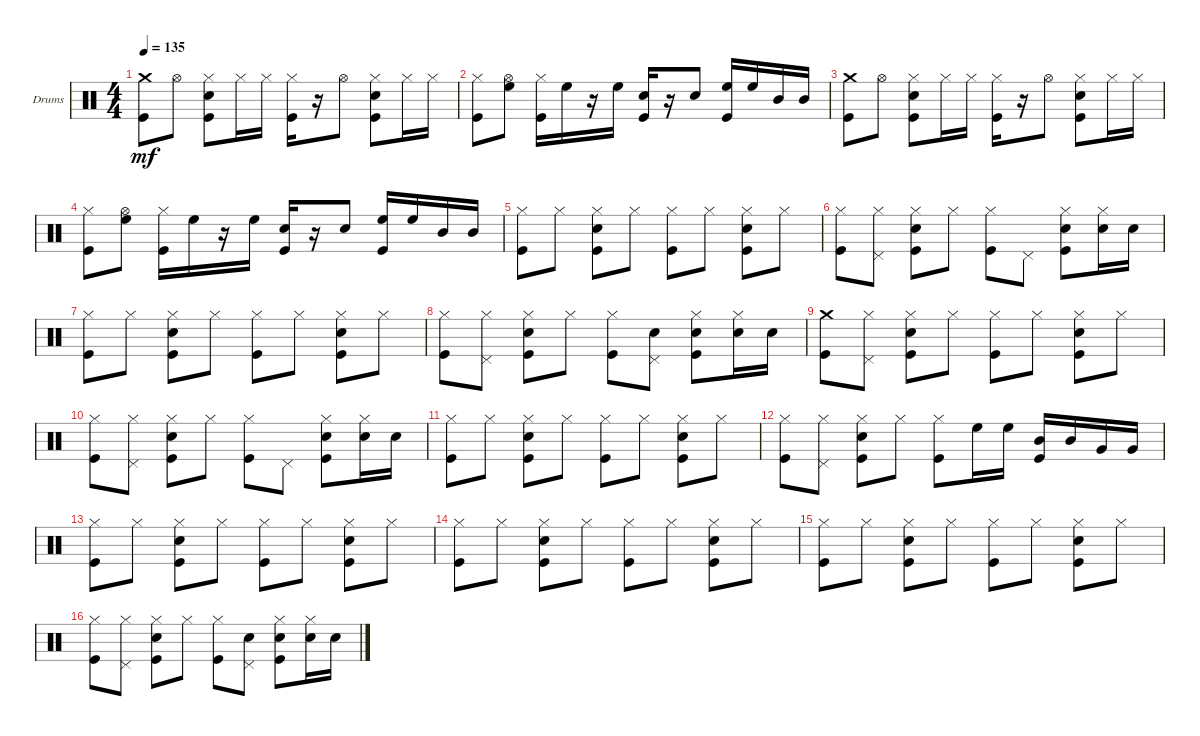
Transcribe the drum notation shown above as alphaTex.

\bracketExtendMode groupsimilarinstruments
\firstSystemTrackNameOrientation horizontal
\otherSystemsTrackNameOrientation horizontal
\track ("Drumkit" "Drums") {instrument percussion}
\staff {score}
\articulation defaults
\ts (4 4)
\tempo 135
\clef neutral
\ks c
("Crash medium (hit)" "Kick (hit)").8{dy mf} "Hi-Hat (open)".8 ("Snare (hit) 2" "Hi-Hat (closed)" "Kick (hit)").8 "Hi-Hat (closed)".16 "Hi-Hat (closed)".16 ("Kick (hit)" "Hi-Hat (closed)").16 r.16 "Hi-Hat (open)".8 ("Hi-Hat (closed)" "Kick (hit)" "Snare (hit) 2").8 "Hi-Hat (closed)".16 "Hi-Hat (closed)".16 |
("Kick (hit)" "Hi-Hat (closed)").8 ("Hi-Hat (open)" "High Floor Tom (hit)").8 ("Hi-Hat (closed)" "Kick (hit)").16 "High Floor Tom (hit)".16 r.16 "High Floor Tom (hit)".16 ("Snare (hit) 2" "Kick (hit)").16 r.16 "Snare (hit) 2".8 ("Kick (hit)" "High Floor Tom (hit)").16 "High Floor Tom (hit)".16 "Mid Tom (hit)".16 "Mid Tom (hit)".16 |
("Kick (hit)" "Crash medium (hit)").8 "Hi-Hat (open)".8 ("Kick (hit)" "Hi-Hat (closed)" "Snare (hit) 2").8 "Hi-Hat (closed)".16 "Hi-Hat (closed)".16 ("Kick (hit)" "Hi-Hat (closed)").16 r.16 "Hi-Hat (open)".8 ("Snare (hit) 2" "Hi-Hat (closed)" "Kick (hit)").8 "Hi-Hat (closed)".16 "Hi-Hat (closed)".16 |
("Hi-Hat (closed)" "Kick (hit)").8 ("High Floor Tom (hit)" "Hi-Hat (open)").8 ("Hi-Hat (closed)" "Kick (hit)").16 "High Floor Tom (hit)".16 r.16 "High Floor Tom (hit)".16 ("Snare (hit) 2" "Kick (hit)").16 r.16 "Snare (hit) 2".8 ("High Floor Tom (hit)" "Kick (hit)").16 "High Floor Tom (hit)".16 "Mid Tom (hit)".16 "Mid Tom (hit)".16 |
("Kick (hit)" "Hi-Hat (closed)").8 "Hi-Hat (closed)".8 ("Hi-Hat (closed)" "Snare (hit) 2" "Kick (hit)").8 "Hi-Hat (closed)".8 ("Hi-Hat (closed)" "Kick (hit)").8 "Hi-Hat (closed)".8 ("Snare (hit) 2" "Hi-Hat (closed)" "Kick (hit)").8 "Hi-Hat (closed)".8 |
("Hi-Hat (closed)" "Kick (hit)").8 ("Pedal Hi-Hat (hit)" "Hi-Hat (closed)").8 ("Snare (hit) 2" "Kick (hit)" "Hi-Hat (closed)").8 "Hi-Hat (closed)".8 ("Kick (hit)" "Hi-Hat (closed)").8 "Pedal Hi-Hat (hit)".8 ("Snare (hit) 2" "Hi-Hat (closed)" "Kick (hit)").8 ("Hi-Hat (closed)" "Snare (hit) 2").16 "Snare (hit) 2".16 |
("Kick (hit)" "Hi-Hat (closed)").8 "Hi-Hat (closed)".8 ("Snare (hit) 2" "Kick (hit)" "Hi-Hat (closed)").8 "Hi-Hat (closed)".8 ("Hi-Hat (closed)" "Kick (hit)").8 "Hi-Hat (closed)".8 ("Snare (hit) 2" "Hi-Hat (closed)" "Kick (hit)").8 "Hi-Hat (closed)".8 |
("Hi-Hat (closed)" "Kick (hit)").8 ("Pedal Hi-Hat (hit)" "Hi-Hat (closed)").8 ("Hi-Hat (closed)" "Kick (hit)" "Snare (hit) 2").8 "Hi-Hat (closed)".8 ("Kick (hit)" "Hi-Hat (closed)").8 ("Snare (hit) 2" "Pedal Hi-Hat (hit)").8 ("Snare (hit) 2" "Hi-Hat (closed)" "Kick (hit)").8 ("Hi-Hat (closed)" "Snare (hit) 2").16 "Snare (hit) 2".16 |
("Crash medium (hit)" "Kick (hit)").8 ("Pedal Hi-Hat (hit)" "Hi-Hat (closed)").8 ("Kick (hit)" "Snare (hit) 2" "Hi-Hat (closed)").8 "Hi-Hat (closed)".8 ("Hi-Hat (closed)" "Kick (hit)").8 "Hi-Hat (closed)".8 ("Snare (hit) 2" "Hi-Hat (closed)" "Kick (hit)").8 "Hi-Hat (closed)".8 |
("Kick (hit)" "Hi-Hat (closed)").8 ("Pedal Hi-Hat (hit)" "Hi-Hat (closed)").8 ("Snare (hit) 2" "Kick (hit)" "Hi-Hat (closed)").8 "Hi-Hat (closed)".8 ("Hi-Hat (closed)" "Kick (hit)").8 "Pedal Hi-Hat (hit)".8 ("Snare (hit) 2" "Hi-Hat (closed)" "Kick (hit)").8 ("Hi-Hat (closed)" "Snare (hit) 2").16 "Snare (hit) 2".16 |
("Kick (hit)" "Hi-Hat (closed)").8 "Hi-Hat (closed)".8 ("Kick (hit)" "Hi-Hat (closed)" "Snare (hit) 2").8 "Hi-Hat (closed)".8 ("Hi-Hat (closed)" "Kick (hit)").8 "Hi-Hat (closed)".8 ("Snare (hit) 2" "Hi-Hat (closed)" "Kick (hit)").8 "Hi-Hat (closed)".8 |
("Kick (hit)" "Hi-Hat (closed)").8 ("Pedal Hi-Hat (hit)" "Hi-Hat (closed)").8 ("Snare (hit) 2" "Kick (hit)" "Hi-Hat (closed)").8 "Hi-Hat (closed)".8 ("Kick (hit)" "Hi-Hat (closed)").8 "High Floor Tom (hit)".16 "High Floor Tom (hit)".16 ("Kick (hit)" "Mid Tom (hit)").16 "Mid Tom (hit)".16 "Very Low Tom (hit)".16 "Very Low Tom (hit)".16 |
("Kick (hit)" "Hi-Hat (closed)").8 "Hi-Hat (closed)".8 ("Snare (hit) 2" "Hi-Hat (closed)" "Kick (hit)").8 "Hi-Hat (closed)".8 ("Hi-Hat (closed)" "Kick (hit)").8 "Hi-Hat (closed)".8 ("Snare (hit) 2" "Hi-Hat (closed)" "Kick (hit)").8 "Hi-Hat (closed)".8 |
("Hi-Hat (closed)" "Kick (hit)").8 "Hi-Hat (closed)".8 ("Snare (hit) 2" "Kick (hit)" "Hi-Hat (closed)").8 "Hi-Hat (closed)".8 ("Hi-Hat (closed)" "Kick (hit)").8 "Hi-Hat (closed)".8 ("Snare (hit) 2" "Hi-Hat (closed)" "Kick (hit)").8 "Hi-Hat (closed)".8 |
("Hi-Hat (closed)" "Kick (hit)").8 "Hi-Hat (closed)".8 ("Kick (hit)" "Snare (hit) 2" "Hi-Hat (closed)").8 "Hi-Hat (closed)".8 ("Hi-Hat (closed)" "Kick (hit)").8 "Hi-Hat (closed)".8 ("Hi-Hat (closed)" "Kick (hit)" "Snare (hit) 2").8 "Hi-Hat (closed)".8 |
("Hi-Hat (closed)" "Kick (hit)").8 ("Pedal Hi-Hat (hit)" "Hi-Hat (closed)").8 ("Hi-Hat (closed)" "Kick (hit)" "Snare (hit) 2").8 "Hi-Hat (closed)".8 ("Kick (hit)" "Hi-Hat (closed)").8 ("Snare (hit) 2" "Pedal Hi-Hat (hit)").8 ("Snare (hit) 2" "Hi-Hat (closed)" "Kick (hit)").8 ("Hi-Hat (closed)" "Snare (hit) 2").16 "Snare (hit) 2".16
